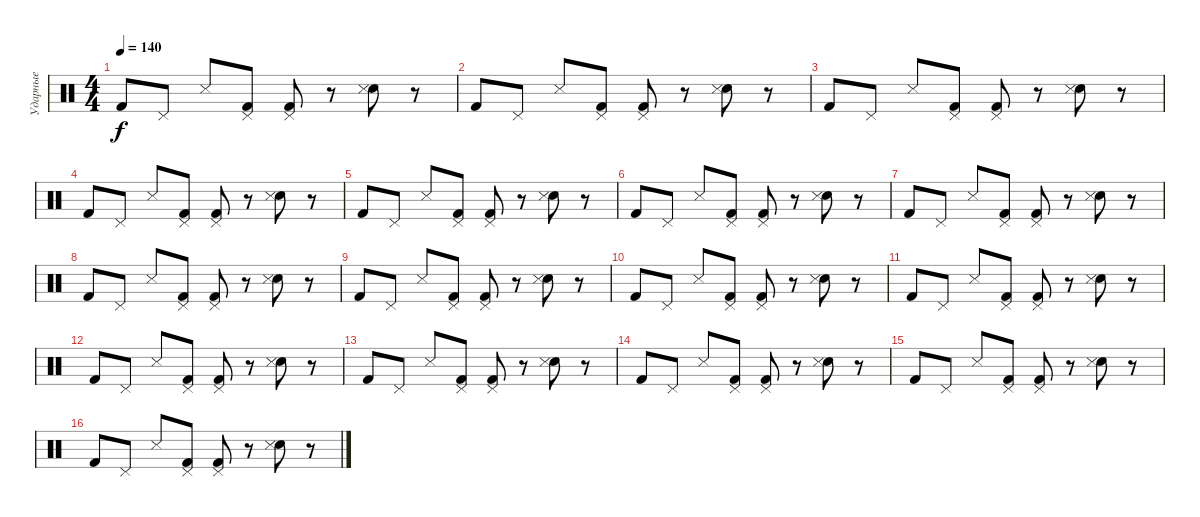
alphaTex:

\track ("Ударные" "Ударные") {instrument percussion}
\staff {score}
\articulation defaults
\ts (4 4)
\tempo 140
\clef neutral
\ks c "Kick (hit) 2".8{dy f} "Pedal Hi-Hat (hit)".8 "Metronome (hit)".8
("Kick (hit) 2" "Pedal Hi-Hat (hit)").8 ("Kick (hit) 2" "Pedal Hi-Hat (hit)").8 r.8 ("Electric Snare (hit)" "Metronome (hit)").8 r.8 |
"Kick (hit) 2".8 "Pedal Hi-Hat (hit)".8 "Metronome (hit)".8 ("Kick (hit) 2" "Pedal Hi-Hat (hit)").8 ("Kick (hit) 2" "Pedal Hi-Hat (hit)").8 r.8 ("Electric Snare (hit)" "Metronome (hit)").8 r.8 |
"Kick (hit) 2".8 "Pedal Hi-Hat (hit)".8 "Metronome (hit)".8 ("Kick (hit) 2" "Pedal Hi-Hat (hit)").8 ("Kick (hit) 2" "Pedal Hi-Hat (hit)").8 r.8 ("Electric Snare (hit)" "Metronome (hit)").8 r.8 |
"Kick (hit) 2".8 "Pedal Hi-Hat (hit)".8 "Metronome (hit)".8 ("Kick (hit) 2" "Pedal Hi-Hat (hit)").8 ("Kick (hit) 2" "Pedal Hi-Hat (hit)").8 r.8 ("Electric Snare (hit)" "Metronome (hit)").8 r.8 |
"Kick (hit) 2".8 "Pedal Hi-Hat (hit)".8 "Metronome (hit)".8 ("Kick (hit) 2" "Pedal Hi-Hat (hit)").8 ("Kick (hit) 2" "Pedal Hi-Hat (hit)").8 r.8 ("Electric Snare (hit)" "Metronome (hit)").8 r.8 |
"Kick (hit) 2".8 "Pedal Hi-Hat (hit)".8 "Metronome (hit)".8 ("Kick (hit) 2" "Pedal Hi-Hat (hit)").8 ("Kick (hit) 2" "Pedal Hi-Hat (hit)").8 r.8 ("Electric Snare (hit)" "Metronome (hit)").8 r.8 |
"Kick (hit) 2".8 "Pedal Hi-Hat (hit)".8 "Metronome (hit)".8 ("Kick (hit) 2" "Pedal Hi-Hat (hit)").8 ("Kick (hit) 2" "Pedal Hi-Hat (hit)").8 r.8 ("Electric Snare (hit)" "Metronome (hit)").8 r.8 |
"Kick (hit) 2".8 "Pedal Hi-Hat (hit)".8 "Metronome (hit)".8 ("Kick (hit) 2" "Pedal Hi-Hat (hit)").8 ("Kick (hit) 2" "Pedal Hi-Hat (hit)").8 r.8 ("Electric Snare (hit)" "Metronome (hit)").8 r.8 |
"Kick (hit) 2".8 "Pedal Hi-Hat (hit)".8 "Metronome (hit)".8 ("Kick (hit) 2" "Pedal Hi-Hat (hit)").8 ("Kick (hit) 2" "Pedal Hi-Hat (hit)").8 r.8 ("Electric Snare (hit)" "Metronome (hit)").8 r.8 |
"Kick (hit) 2".8 "Pedal Hi-Hat (hit)".8 "Metronome (hit)".8 ("Kick (hit) 2" "Pedal Hi-Hat (hit)").8 ("Kick (hit) 2" "Pedal Hi-Hat (hit)").8 r.8 ("Electric Snare (hit)" "Metronome (hit)").8 r.8 |
"Kick (hit) 2".8 "Pedal Hi-Hat (hit)".8 "Metronome (hit)".8 ("Kick (hit) 2" "Pedal Hi-Hat (hit)").8 ("Kick (hit) 2" "Pedal Hi-Hat (hit)").8 r.8 ("Electric Snare (hit)" "Metronome (hit)").8 r.8 |
"Kick (hit) 2".8 "Pedal Hi-Hat (hit)".8 "Metronome (hit)".8 ("Kick (hit) 2" "Pedal Hi-Hat (hit)").8 ("Kick (hit) 2" "Pedal Hi-Hat (hit)").8 r.8 ("Electric Snare (hit)" "Metronome (hit)").8 r.8 |
"Kick (hit) 2".8 "Pedal Hi-Hat (hit)".8 "Metronome (hit)".8 ("Kick (hit) 2" "Pedal Hi-Hat (hit)").8 ("Kick (hit) 2" "Pedal Hi-Hat (hit)").8 r.8 ("Electric Snare (hit)" "Metronome (hit)").8 r.8 |
"Kick (hit) 2".8 "Pedal Hi-Hat (hit)".8 "Metronome (hit)".8 ("Kick (hit) 2" "Pedal Hi-Hat (hit)").8 ("Kick (hit) 2" "Pedal Hi-Hat (hit)").8 r.8 ("Electric Snare (hit)" "Metronome (hit)").8 r.8 |
"Kick (hit) 2".8 "Pedal Hi-Hat (hit)".8 "Metronome (hit)".8 ("Kick (hit) 2" "Pedal Hi-Hat (hit)").8 ("Kick (hit) 2" "Pedal Hi-Hat (hit)").8 r.8 ("Electric Snare (hit)" "Metronome (hit)").8 r.8 |
"Kick (hit) 2".8 "Pedal Hi-Hat (hit)".8 "Metronome (hit)".8 ("Kick (hit) 2" "Pedal Hi-Hat (hit)").8 ("Kick (hit) 2" "Pedal Hi-Hat (hit)").8 r.8 ("Electric Snare (hit)" "Metronome (hit)").8 r.8
